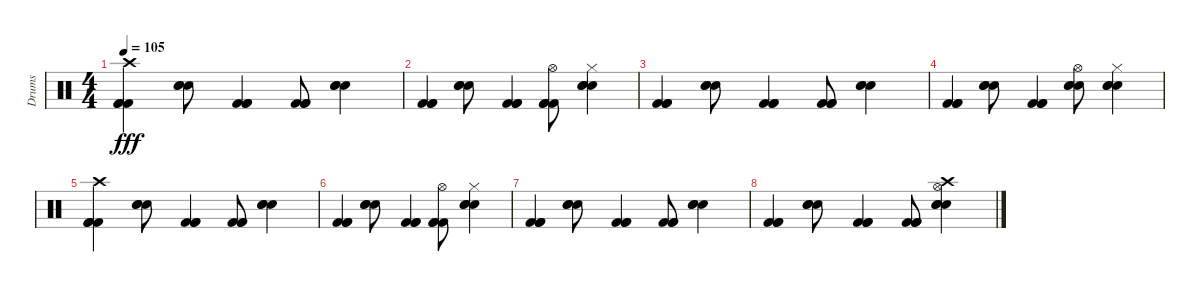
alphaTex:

\track ("Drums" "Drums") {instrument percussion}
\staff {score}
\articulation defaults
\ts (4 4)
\tempo 105
\clef neutral
\ks c
("Kick (hit) 2" "Kick (hit) 2" "Kick (hit) 2" "Crash high (hit)").4{dy fff} ("Electric Snare (hit)" "Electric Snare (hit)" "Electric Snare (hit)").8 ("Kick (hit) 2" "Kick (hit) 2" "Kick (hit) 2").4 ("Kick (hit) 2" "Kick (hit) 2" "Kick (hit) 2").8 ("Electric Snare (hit)" "Electric Snare (hit)" "Electric Snare (hit)").4 |
("Kick (hit) 2" "Kick (hit) 2" "Kick (hit) 2").4 ("Electric Snare (hit)" "Electric Snare (hit)" "Electric Snare (hit)").8 ("Kick (hit) 2" "Kick (hit) 2" "Kick (hit) 2").4 ("Kick (hit) 2" "Kick (hit) 2" "Kick (hit) 2" "Hi-Hat (open)").8 ("Electric Snare (hit)" "Electric Snare (hit)" "Electric Snare (hit)" "Hi-Hat (closed)").4 |
("Kick (hit) 2" "Kick (hit) 2" "Kick (hit) 2").4 ("Electric Snare (hit)" "Electric Snare (hit)" "Electric Snare (hit)").8 ("Kick (hit) 2" "Kick (hit) 2" "Kick (hit) 2").4 ("Kick (hit) 2" "Kick (hit) 2" "Kick (hit) 2").8 ("Electric Snare (hit)" "Electric Snare (hit)" "Electric Snare (hit)").4 |
("Kick (hit) 2" "Kick (hit) 2" "Kick (hit) 2").4 ("Electric Snare (hit)" "Electric Snare (hit)" "Electric Snare (hit)").8 ("Kick (hit) 2" "Kick (hit) 2" "Kick (hit) 2").4 ("Electric Snare (hit)" "Electric Snare (hit)" "Electric Snare (hit)" "Hi-Hat (open)").8 ("Electric Snare (hit)" "Electric Snare (hit)" "Electric Snare (hit)" "Hi-Hat (closed)").4 |
("Kick (hit) 2" "Kick (hit) 2" "Kick (hit) 2" "Crash high (hit)").4 ("Electric Snare (hit)" "Electric Snare (hit)" "Electric Snare (hit)").8 ("Kick (hit) 2" "Kick (hit) 2" "Kick (hit) 2").4 ("Kick (hit) 2" "Kick (hit) 2" "Kick (hit) 2").8 ("Electric Snare (hit)" "Electric Snare (hit)" "Electric Snare (hit)").4 |
("Kick (hit) 2" "Kick (hit) 2" "Kick (hit) 2").4 ("Electric Snare (hit)" "Electric Snare (hit)" "Electric Snare (hit)").8 ("Kick (hit) 2" "Kick (hit) 2" "Kick (hit) 2").4 ("Kick (hit) 2" "Kick (hit) 2" "Kick (hit) 2" "Hi-Hat (open)").8 ("Electric Snare (hit)" "Electric Snare (hit)" "Electric Snare (hit)" "Hi-Hat (closed)").4 |
("Kick (hit) 2" "Kick (hit) 2" "Kick (hit) 2").4 ("Electric Snare (hit)" "Electric Snare (hit)" "Electric Snare (hit)").8 ("Kick (hit) 2" "Kick (hit) 2" "Kick (hit) 2").4 ("Kick (hit) 2" "Kick (hit) 2" "Kick (hit) 2").8 ("Electric Snare (hit)" "Electric Snare (hit)" "Electric Snare (hit)").4 |
("Kick (hit) 2" "Kick (hit) 2" "Kick (hit) 2").4 ("Electric Snare (hit)" "Electric Snare (hit)" "Electric Snare (hit)").8 ("Kick (hit) 2" "Kick (hit) 2" "Kick (hit) 2").4 ("Kick (hit) 2" "Kick (hit) 2" "Kick (hit) 2").8 ("Electric Snare (hit)" "Electric Snare (hit)" "Electric Snare (hit)" "Hi-Hat (open)" "Crash high (hit)").4
